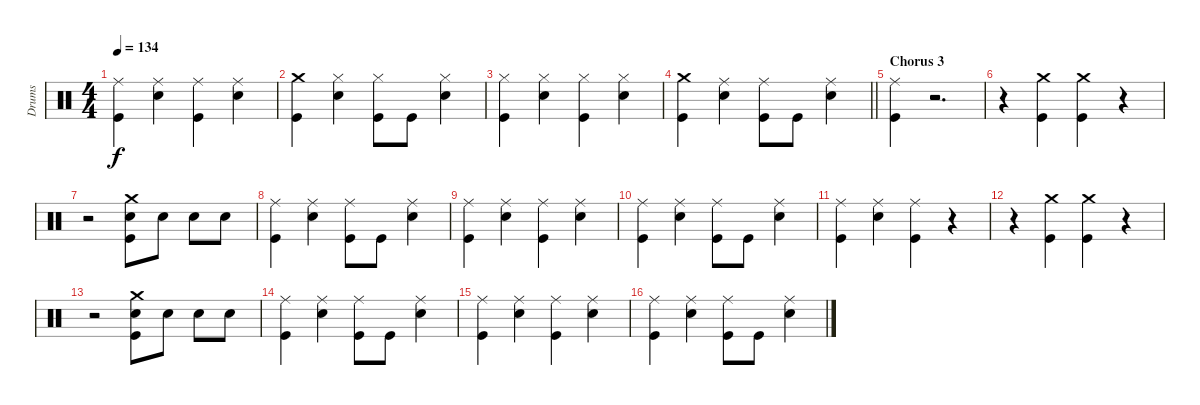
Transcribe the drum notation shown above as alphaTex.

\track ("Drums" "Drums") {instrument percussion}
\staff {score}
\articulation defaults
\ts (4 4)
\tempo 134
\clef neutral
\ks c
("Ride (middle)" "Kick (hit)").4{dy f} ("Ride (middle)" "Snare (hit) 2").4 ("Ride (middle)" "Kick (hit)").4 ("Ride (middle)" "Snare (hit) 2").4 |
("Crash medium (hit)" "Kick (hit)").4 ("Hi-Hat (closed)" "Snare (hit) 2").4 ("Hi-Hat (closed)" "Kick (hit)").8 "Kick (hit)".8 ("Hi-Hat (closed)" "Snare (hit) 2").4 |
("Hi-Hat (closed)" "Kick (hit)").4 ("Hi-Hat (closed)" "Snare (hit) 2").4 ("Hi-Hat (closed)" "Kick (hit)").4 ("Hi-Hat (closed)" "Snare (hit) 2").4 |
\barLineRight lightlight
("Crash medium (hit)" "Kick (hit)").4 ("Ride (middle)" "Snare (hit) 2").4 ("Ride (middle)" "Kick (hit)").8 "Kick (hit)".8 ("Ride (middle)" "Snare (hit) 2").4 |
\section ("" "Chorus 3")
("Ride (middle)" "Kick (hit)").4 r.2{d} |
r.4 ("Crash medium (hit)" "Kick (hit)").4 ("Crash medium (hit)" "Kick (hit)").4 r.4 |
r.2 ("Crash medium (hit)" "Snare (hit) 2" "Kick (hit)").8 "Snare (hit) 2".8 "Snare (hit) 2".8 "Snare (hit) 2".8 |
("Ride (middle)" "Kick (hit)").4 ("Ride (middle)" "Snare (hit) 2").4 ("Ride (middle)" "Kick (hit)").8 "Kick (hit)".8 ("Ride (middle)" "Snare (hit) 2").4 |
("Ride (middle)" "Kick (hit)").4 ("Ride (middle)" "Snare (hit) 2").4 ("Ride (middle)" "Kick (hit)").4 ("Ride (middle)" "Snare (hit) 2").4 |
("Ride (middle)" "Kick (hit)").4 ("Ride (middle)" "Snare (hit) 2").4 ("Ride (middle)" "Kick (hit)").8 "Kick (hit)".8 ("Ride (middle)" "Snare (hit) 2").4 |
("Ride (middle)" "Kick (hit)").4 ("Ride (middle)" "Snare (hit) 2").4 ("Ride (middle)" "Kick (hit)").4 r.4 |
r.4 ("Crash medium (hit)" "Kick (hit)").4 ("Crash medium (hit)" "Kick (hit)").4 r.4 |
r.2 ("Crash medium (hit)" "Snare (hit) 2" "Kick (hit)").8 "Snare (hit) 2".8 "Snare (hit) 2".8 "Snare (hit) 2".8 |
("Ride (middle)" "Kick (hit)").4 ("Ride (middle)" "Snare (hit) 2").4 ("Ride (middle)" "Kick (hit)").8 "Kick (hit)".8 ("Ride (middle)" "Snare (hit) 2").4 |
("Ride (middle)" "Kick (hit)").4 ("Ride (middle)" "Snare (hit) 2").4 ("Ride (middle)" "Kick (hit)").4 ("Ride (middle)" "Snare (hit) 2").4 |
("Ride (middle)" "Kick (hit)").4 ("Ride (middle)" "Snare (hit) 2").4 ("Ride (middle)" "Kick (hit)").8 "Kick (hit)".8 ("Ride (middle)" "Snare (hit) 2").4
